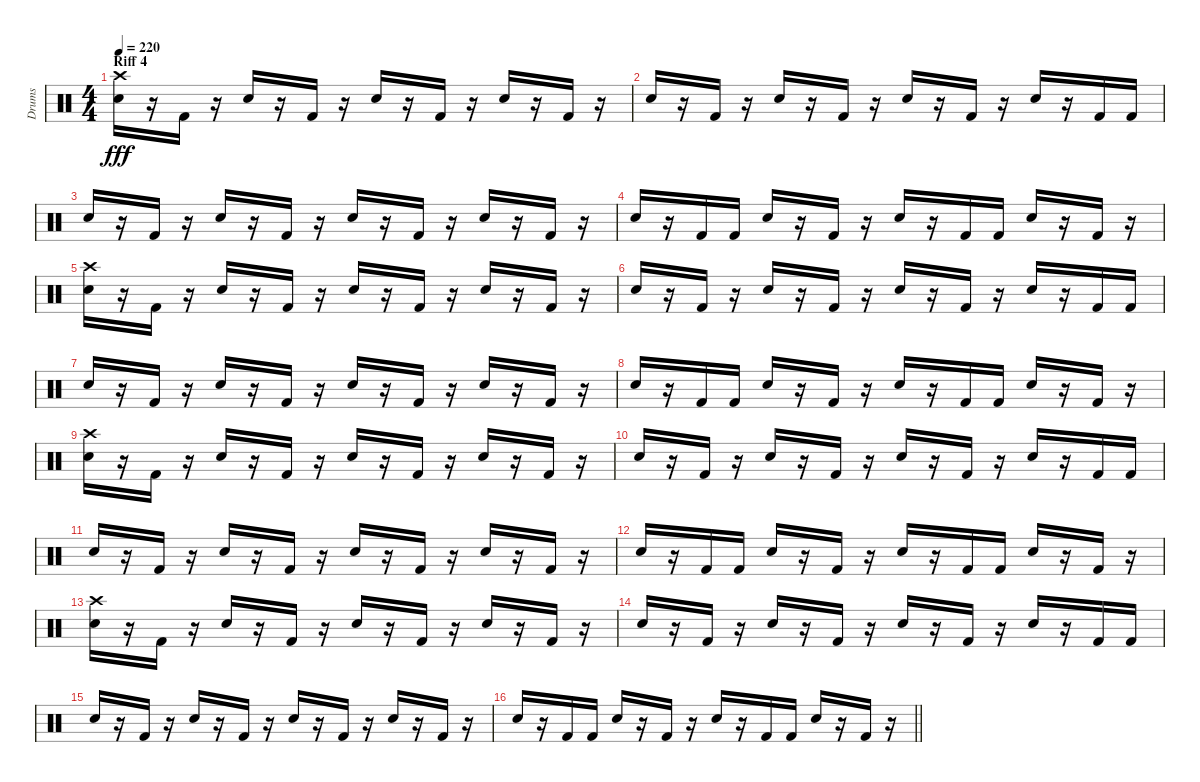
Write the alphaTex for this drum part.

\track ("Drums" "Drums") {instrument percussion}
\staff {score}
\articulation defaults
\ts (4 4)
\section ("" "Riff 4")
\tempo 220
\clef neutral
\ks c
("Crash high (hit)" "Snare (hit) 2").16{dy fff} r.16 "Kick (hit) 2".16 r.16 "Snare (hit) 2".16 r.16 "Kick (hit) 2".16 r.16 "Snare (hit) 2".16 r.16 "Kick (hit) 2".16 r.16 "Snare (hit) 2".16 r.16 "Kick (hit) 2".16 r.16 |
"Snare (hit) 2".16 r.16 "Kick (hit) 2".16 r.16 "Snare (hit) 2".16 r.16 "Kick (hit) 2".16 r.16 "Snare (hit) 2".16 r.16 "Kick (hit) 2".16 r.16 "Snare (hit) 2".16 r.16 "Kick (hit) 2".16 "Kick (hit) 2".16 |
"Snare (hit) 2".16 r.16 "Kick (hit) 2".16 r.16 "Snare (hit) 2".16 r.16 "Kick (hit) 2".16 r.16 "Snare (hit) 2".16 r.16 "Kick (hit) 2".16 r.16 "Snare (hit) 2".16 r.16 "Kick (hit) 2".16 r.16 |
"Snare (hit) 2".16 r.16 "Kick (hit) 2".16 "Kick (hit) 2".16 "Snare (hit) 2".16 r.16 "Kick (hit) 2".16 r.16 "Snare (hit) 2".16 r.16 "Kick (hit) 2".16 "Kick (hit) 2".16 "Snare (hit) 2".16 r.16 "Kick (hit) 2".16 r.16 |
("Crash high (hit)" "Snare (hit) 2").16 r.16 "Kick (hit) 2".16 r.16 "Snare (hit) 2".16 r.16 "Kick (hit) 2".16 r.16 "Snare (hit) 2".16 r.16 "Kick (hit) 2".16 r.16 "Snare (hit) 2".16 r.16 "Kick (hit) 2".16 r.16 |
"Snare (hit) 2".16 r.16 "Kick (hit) 2".16 r.16 "Snare (hit) 2".16 r.16 "Kick (hit) 2".16 r.16 "Snare (hit) 2".16 r.16 "Kick (hit) 2".16 r.16 "Snare (hit) 2".16 r.16 "Kick (hit) 2".16 "Kick (hit) 2".16 |
"Snare (hit) 2".16 r.16 "Kick (hit) 2".16 r.16 "Snare (hit) 2".16 r.16 "Kick (hit) 2".16 r.16 "Snare (hit) 2".16 r.16 "Kick (hit) 2".16 r.16 "Snare (hit) 2".16 r.16 "Kick (hit) 2".16 r.16 |
"Snare (hit) 2".16 r.16 "Kick (hit) 2".16 "Kick (hit) 2".16 "Snare (hit) 2".16 r.16 "Kick (hit) 2".16 r.16 "Snare (hit) 2".16 r.16 "Kick (hit) 2".16 "Kick (hit) 2".16 "Snare (hit) 2".16 r.16 "Kick (hit) 2".16 r.16 |
("Crash high (hit)" "Snare (hit) 2").16 r.16 "Kick (hit) 2".16 r.16 "Snare (hit) 2".16 r.16 "Kick (hit) 2".16 r.16 "Snare (hit) 2".16 r.16 "Kick (hit) 2".16 r.16 "Snare (hit) 2".16 r.16 "Kick (hit) 2".16 r.16 |
"Snare (hit) 2".16 r.16 "Kick (hit) 2".16 r.16 "Snare (hit) 2".16 r.16 "Kick (hit) 2".16 r.16 "Snare (hit) 2".16 r.16 "Kick (hit) 2".16 r.16 "Snare (hit) 2".16 r.16 "Kick (hit) 2".16 "Kick (hit) 2".16 |
"Snare (hit) 2".16 r.16 "Kick (hit) 2".16 r.16 "Snare (hit) 2".16 r.16 "Kick (hit) 2".16 r.16 "Snare (hit) 2".16 r.16 "Kick (hit) 2".16 r.16 "Snare (hit) 2".16 r.16 "Kick (hit) 2".16 r.16 |
"Snare (hit) 2".16 r.16 "Kick (hit) 2".16 "Kick (hit) 2".16 "Snare (hit) 2".16 r.16 "Kick (hit) 2".16 r.16 "Snare (hit) 2".16 r.16 "Kick (hit) 2".16 "Kick (hit) 2".16 "Snare (hit) 2".16 r.16 "Kick (hit) 2".16 r.16 |
("Crash high (hit)" "Snare (hit) 2").16 r.16 "Kick (hit) 2".16 r.16 "Snare (hit) 2".16 r.16 "Kick (hit) 2".16 r.16 "Snare (hit) 2".16 r.16 "Kick (hit) 2".16 r.16 "Snare (hit) 2".16 r.16 "Kick (hit) 2".16 r.16 |
"Snare (hit) 2".16 r.16 "Kick (hit) 2".16 r.16 "Snare (hit) 2".16 r.16 "Kick (hit) 2".16 r.16 "Snare (hit) 2".16 r.16 "Kick (hit) 2".16 r.16 "Snare (hit) 2".16 r.16 "Kick (hit) 2".16 "Kick (hit) 2".16 |
"Snare (hit) 2".16 r.16 "Kick (hit) 2".16 r.16 "Snare (hit) 2".16 r.16 "Kick (hit) 2".16 r.16 "Snare (hit) 2".16 r.16 "Kick (hit) 2".16 r.16 "Snare (hit) 2".16 r.16 "Kick (hit) 2".16 r.16 |
\barLineRight lightlight "Snare (hit) 2".16
r.16 "Kick (hit) 2".16 "Kick (hit) 2".16 "Snare (hit) 2".16 r.16 "Kick (hit) 2".16 r.16 "Snare (hit) 2".16 r.16 "Kick (hit) 2".16 "Kick (hit) 2".16 "Snare (hit) 2".16 r.16 "Kick (hit) 2".16 r.16
